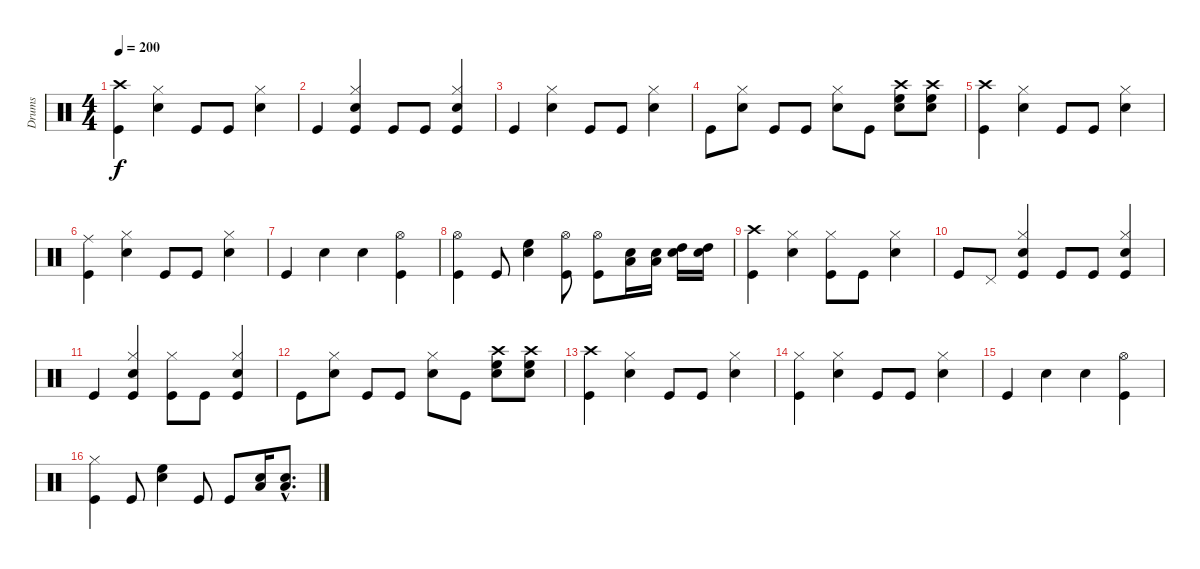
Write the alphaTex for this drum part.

\track ("Drums" "Drums") {instrument percussion}
\staff {score}
\articulation defaults
\ts (4 4)
\tempo 200
\clef neutral
\ks c
("Crash high (hit)" "Kick (hit)").4{dy f} ("Hi-Hat (closed)" "Snare (hit) 2").4 "Kick (hit)".8 "Kick (hit)".8 ("Hi-Hat (closed)" "Snare (hit) 2").4 |
"Kick (hit)".4 ("Hi-Hat (closed)" "Snare (hit) 2" "Kick (hit)").4 "Kick (hit)".8 "Kick (hit)".8 ("Hi-Hat (closed)" "Snare (hit) 2" "Kick (hit)").4 |
"Kick (hit)".4 ("Hi-Hat (closed)" "Snare (hit) 2").4 "Kick (hit)".8 "Kick (hit)".8 ("Hi-Hat (closed)" "Snare (hit) 2").4 |
"Kick (hit)".8 ("Hi-Hat (closed)" "Snare (hit) 2").8 "Kick (hit)".8 "Kick (hit)".8 ("Hi-Hat (closed)" "Snare (hit) 2").8 "Kick (hit)".8 ("Crash high (hit)" "Snare (hit) 2" "High Floor Tom (hit)").8 ("Crash high (hit)" "Snare (hit) 2" "High Floor Tom (hit)").8 |
("Crash high (hit)" "Kick (hit)").4 ("Hi-Hat (closed)" "Snare (hit) 2").4 "Kick (hit)".8 "Kick (hit)".8 ("Hi-Hat (closed)" "Snare (hit) 2").4 |
("Ride (middle)" "Kick (hit)").4 ("Hi-Hat (closed)" "Snare (hit) 2").4 "Kick (hit)".8 "Kick (hit)".8 ("Hi-Hat (closed)" "Snare (hit) 2").4 |
"Kick (hit)".4 "Snare (hit) 2".4 "Snare (hit) 2".4 ("Hi-Hat (open)" "Kick (hit)").4 |
("Hi-Hat (open)" "Kick (hit)").4 "Kick (hit)".8 ("Snare (hit) 2" "High Floor Tom (hit)").4 ("Hi-Hat (open)" "Kick (hit)").8 ("Hi-Hat (open)" "Kick (hit)").8 ("Snare (hit) 2" "Low Tom (hit)").16 ("Snare (hit) 2" "Low Tom (hit)").16 ("Snare (hit) 2" "High Tom (hit)").16 ("Snare (hit) 2" "High Tom (hit)").16 |
("Crash high (hit)" "Kick (hit)").4 ("Hi-Hat (closed)" "Snare (hit) 2").4 ("Hi-Hat (closed)" "Kick (hit)").8 "Kick (hit)".8 ("Hi-Hat (closed)" "Snare (hit) 2").4 |
"Kick (hit)".8 "Pedal Hi-Hat (hit)".8 ("Hi-Hat (closed)" "Snare (hit) 2" "Kick (hit)").4 "Kick (hit)".8 "Kick (hit)".8 ("Hi-Hat (closed)" "Snare (hit) 2" "Kick (hit)").4 |
"Kick (hit)".4 ("Hi-Hat (closed)" "Snare (hit) 2" "Kick (hit)").4 ("Hi-Hat (closed)" "Kick (hit)").8 "Kick (hit)".8 ("Hi-Hat (closed)" "Snare (hit) 2" "Kick (hit)").4 |
"Kick (hit)".8 ("Hi-Hat (closed)" "Snare (hit) 2").8 "Kick (hit)".8 "Kick (hit)".8 ("Hi-Hat (closed)" "Snare (hit) 2").8 "Kick (hit)".8 ("Crash high (hit)" "Snare (hit) 2" "High Floor Tom (hit)").8 ("Crash high (hit)" "Snare (hit) 2" "High Floor Tom (hit)").8 |
("Crash high (hit)" "Kick (hit)").4 ("Hi-Hat (closed)" "Snare (hit) 2").4 "Kick (hit)".8 "Kick (hit)".8 ("Hi-Hat (closed)" "Snare (hit) 2").4 |
("Hi-Hat (closed)" "Kick (hit)").4 ("Hi-Hat (closed)" "Snare (hit) 2").4 "Kick (hit)".8 "Kick (hit)".8 ("Hi-Hat (closed)" "Snare (hit) 2").4 |
"Kick (hit)".4 "Snare (hit) 2".4 "Snare (hit) 2".4 ("Hi-Hat (open)" "Kick (hit)").4 |
("Hi-Hat (closed)" "Kick (hit)").4 "Kick (hit)".8 ("Snare (hit) 2" "High Floor Tom (hit)").4 "Kick (hit)".8 "Kick (hit)".8 ("Snare (hit) 2" "Low Tom (hit)").16 ("Snare (hit) 2"{hac} "Low Tom (hit)"{hac}).8{d}
